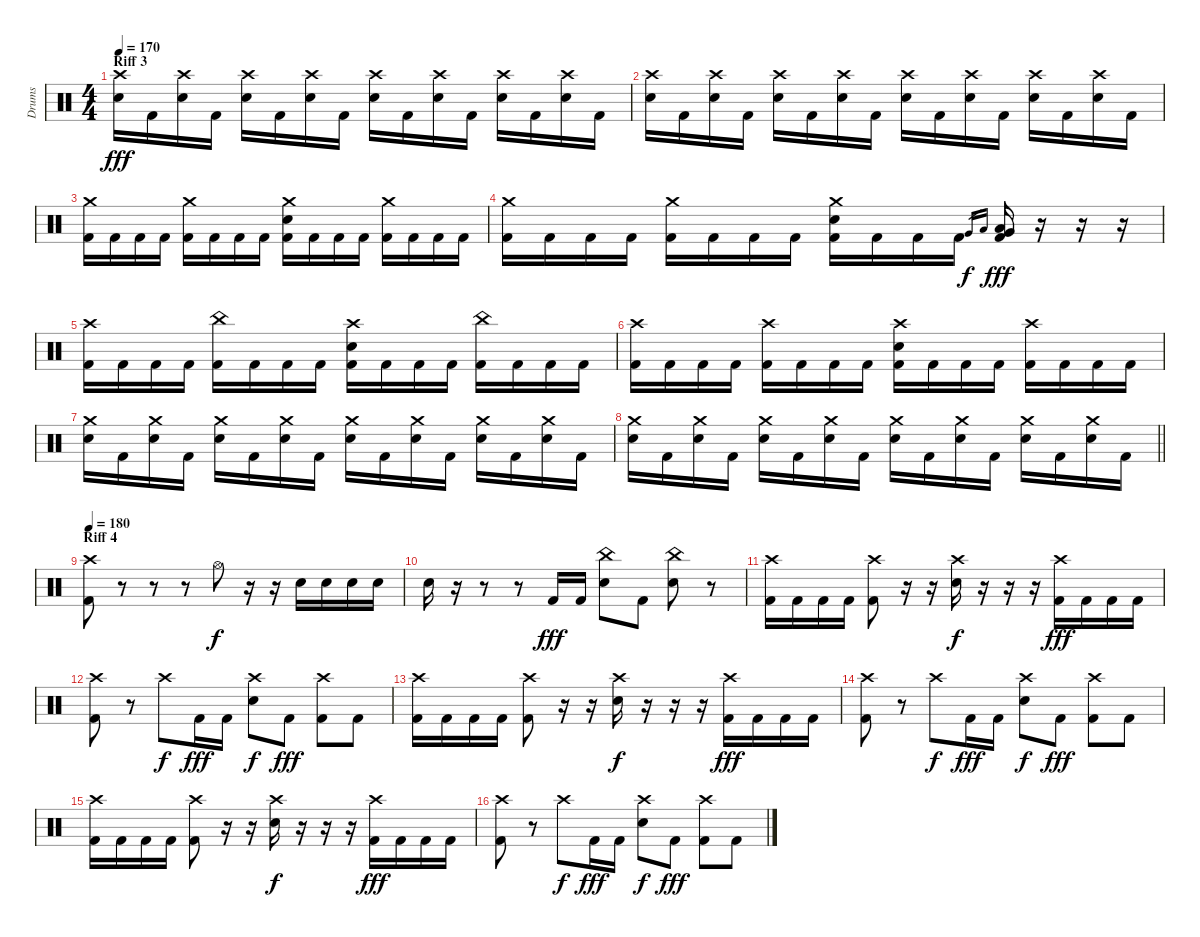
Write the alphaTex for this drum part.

\track ("Drums" "Drums") {instrument percussion}
\staff {score}
\articulation defaults
\ts (4 4)
\section ("" "Riff 3")
\tempo 170
\clef neutral
\ks c
("Crash high (hit)" "Electric Snare (hit)").16{dy fff} "Kick (hit) 2".16 ("Crash high (hit)" "Electric Snare (hit)").16 "Kick (hit) 2".16 ("Crash high (hit)" "Electric Snare (hit)").16 "Kick (hit) 2".16 ("Crash high (hit)" "Electric Snare (hit)").16 "Kick (hit) 2".16 ("Crash high (hit)" "Electric Snare (hit)").16 "Kick (hit) 2".16 ("Crash high (hit)" "Electric Snare (hit)").16 "Kick (hit) 2".16 ("Crash high (hit)" "Electric Snare (hit)").16 "Kick (hit) 2".16 ("Crash high (hit)" "Electric Snare (hit)").16 "Kick (hit) 2".16 |
("Crash high (hit)" "Electric Snare (hit)").16 "Kick (hit) 2".16 ("Crash high (hit)" "Electric Snare (hit)").16 "Kick (hit) 2".16 ("Crash high (hit)" "Electric Snare (hit)").16 "Kick (hit) 2".16 ("Crash high (hit)" "Electric Snare (hit)").16 "Kick (hit) 2".16 ("Crash high (hit)" "Electric Snare (hit)").16 "Kick (hit) 2".16 ("Crash high (hit)" "Electric Snare (hit)").16 "Kick (hit) 2".16 ("Crash high (hit)" "Electric Snare (hit)").16 "Kick (hit) 2".16 ("Crash high (hit)" "Electric Snare (hit)").16 "Kick (hit) 2".16 |
("Crash medium (hit)" "Kick (hit) 2").16 "Kick (hit) 2".16 "Kick (hit) 2".16 "Kick (hit) 2".16 ("Crash medium (hit)" "Kick (hit) 2").16 "Kick (hit) 2".16 "Kick (hit) 2".16 "Kick (hit) 2".16 ("Crash medium (hit)" "Electric Snare (hit)" "Kick (hit) 2").16 "Kick (hit) 2".16 "Kick (hit) 2".16 "Kick (hit) 2".16 ("Crash medium (hit)" "Kick (hit) 2").16 "Kick (hit) 2".16 "Kick (hit) 2".16 "Kick (hit) 2".16 |
("Crash medium (hit)" "Kick (hit) 2").16 "Kick (hit) 2".16 "Kick (hit) 2".16 "Kick (hit) 2".16 ("Crash medium (hit)" "Kick (hit) 2").16 "Kick (hit) 2".16 "Kick (hit) 2".16 "Kick (hit) 2".16 ("Crash medium (hit)" "Electric Snare (hit)" "Kick (hit) 2").16 "Kick (hit) 2".16 "Kick (hit) 2".16 "Kick (hit) 2".16 "Very Low Tom (hit)".16{gr dy f} "Low Floor Tom (hit)".16{gr} ("Very Low Tom (hit)" "Low Floor Tom (hit)" "Kick (hit) 2").16{dy fff} r.16 r.16 r.16 |
("Crash high (hit)" "Kick (hit) 2").16 "Kick (hit) 2".16 "Kick (hit) 2".16 "Kick (hit) 2".16 ("China (hit)" "Kick (hit) 2").16 "Kick (hit) 2".16 "Kick (hit) 2".16 "Kick (hit) 2".16 ("Crash high (hit)" "Electric Snare (hit)" "Kick (hit) 2").16 "Kick (hit) 2".16 "Kick (hit) 2".16 "Kick (hit) 2".16 ("China (hit)" "Kick (hit) 2").16 "Kick (hit) 2".16 "Kick (hit) 2".16 "Kick (hit) 2".16 |
("Crash high (hit)" "Kick (hit) 2").16 "Kick (hit) 2".16 "Kick (hit) 2".16 "Kick (hit) 2".16 ("Crash high (hit)" "Kick (hit) 2").16 "Kick (hit) 2".16 "Kick (hit) 2".16 "Kick (hit) 2".16 ("Crash high (hit)" "Electric Snare (hit)" "Kick (hit) 2").16 "Kick (hit) 2".16 "Kick (hit) 2".16 "Kick (hit) 2".16 ("Crash high (hit)" "Kick (hit) 2").16 "Kick (hit) 2".16 "Kick (hit) 2".16 "Kick (hit) 2".16 |
("Crash medium (hit)" "Electric Snare (hit)").16 "Kick (hit) 2".16 ("Crash medium (hit)" "Electric Snare (hit)").16 "Kick (hit) 2".16 ("Crash medium (hit)" "Electric Snare (hit)").16 "Kick (hit) 2".16 ("Crash medium (hit)" "Electric Snare (hit)").16 "Kick (hit) 2".16 ("Crash medium (hit)" "Electric Snare (hit)").16 "Kick (hit) 2".16 ("Crash medium (hit)" "Electric Snare (hit)").16 "Kick (hit) 2".16 ("Crash medium (hit)" "Electric Snare (hit)").16 "Kick (hit) 2".16 ("Crash medium (hit)" "Electric Snare (hit)").16 "Kick (hit) 2".16 |
\barLineRight lightlight
("Crash medium (hit)" "Electric Snare (hit)").16 "Kick (hit) 2".16 ("Crash medium (hit)" "Electric Snare (hit)").16 "Kick (hit) 2".16 ("Crash medium (hit)" "Electric Snare (hit)").16 "Kick (hit) 2".16 ("Crash medium (hit)" "Electric Snare (hit)").16 "Kick (hit) 2".16 ("Crash medium (hit)" "Electric Snare (hit)").16 "Kick (hit) 2".16 ("Crash medium (hit)" "Electric Snare (hit)").16 "Kick (hit) 2".16 ("Crash medium (hit)" "Electric Snare (hit)").16 "Kick (hit) 2".16 ("Crash medium (hit)" "Electric Snare (hit)").16 "Kick (hit) 2".16 |
\section ("" "Riff 4")
\tempo 180
("Crash high (hit)" "Kick (hit) 2").8 r.8 r.8 r.8 "Hi-Hat (open)".8{dy f} r.16 r.16 "Electric Snare (hit)".16 "Electric Snare (hit)".16 "Electric Snare (hit)".16 "Electric Snare (hit)".16 |
"Electric Snare (hit)".16 r.16 r.8 r.8 "Kick (hit) 2".16{dy fff} "Kick (hit) 2".16 ("China (hit)" "Electric Snare (hit)").8 "Kick (hit) 2".8 ("China (hit)" "Electric Snare (hit)").8 r.8 |
("Crash high (hit)" "Kick (hit) 2").16 "Kick (hit) 2".16 "Kick (hit) 2".16 "Kick (hit) 2".16 ("Crash high (hit)" "Kick (hit) 2").8 r.16 r.16 ("Crash high (hit)" "Electric Snare (hit)").16{dy f} r.16 r.16 r.16 ("Crash high (hit)" "Kick (hit) 2").16{dy fff} "Kick (hit) 2".16 "Kick (hit) 2".16 "Kick (hit) 2".16 |
("Crash high (hit)" "Kick (hit) 2").8 r.8 "Crash high (hit)".8{dy f} "Kick (hit) 2".16{dy fff} "Kick (hit) 2".16 ("Crash high (hit)" "Electric Snare (hit)").8{dy f} "Kick (hit) 2".8{dy fff} ("Crash high (hit)" "Kick (hit) 2").8 "Kick (hit) 2".8 |
("Crash high (hit)" "Kick (hit) 2").16 "Kick (hit) 2".16 "Kick (hit) 2".16 "Kick (hit) 2".16 ("Crash high (hit)" "Kick (hit) 2").8 r.16 r.16 ("Crash high (hit)" "Electric Snare (hit)").16{dy f} r.16 r.16 r.16 ("Crash high (hit)" "Kick (hit) 2").16{dy fff} "Kick (hit) 2".16 "Kick (hit) 2".16 "Kick (hit) 2".16 |
("Crash high (hit)" "Kick (hit) 2").8 r.8 "Crash high (hit)".8{dy f} "Kick (hit) 2".16{dy fff} "Kick (hit) 2".16 ("Crash high (hit)" "Electric Snare (hit)").8{dy f} "Kick (hit) 2".8{dy fff} ("Crash high (hit)" "Kick (hit) 2").8 "Kick (hit) 2".8 |
("Crash high (hit)" "Kick (hit) 2").16 "Kick (hit) 2".16 "Kick (hit) 2".16 "Kick (hit) 2".16 ("Crash high (hit)" "Kick (hit) 2").8 r.16 r.16 ("Crash high (hit)" "Electric Snare (hit)").16{dy f} r.16 r.16 r.16 ("Crash high (hit)" "Kick (hit) 2").16{dy fff} "Kick (hit) 2".16 "Kick (hit) 2".16 "Kick (hit) 2".16 |
("Crash high (hit)" "Kick (hit) 2").8 r.8 "Crash high (hit)".8{dy f} "Kick (hit) 2".16{dy fff} "Kick (hit) 2".16 ("Crash high (hit)" "Electric Snare (hit)").8{dy f} "Kick (hit) 2".8{dy fff} ("Crash high (hit)" "Kick (hit) 2").8 "Kick (hit) 2".8
